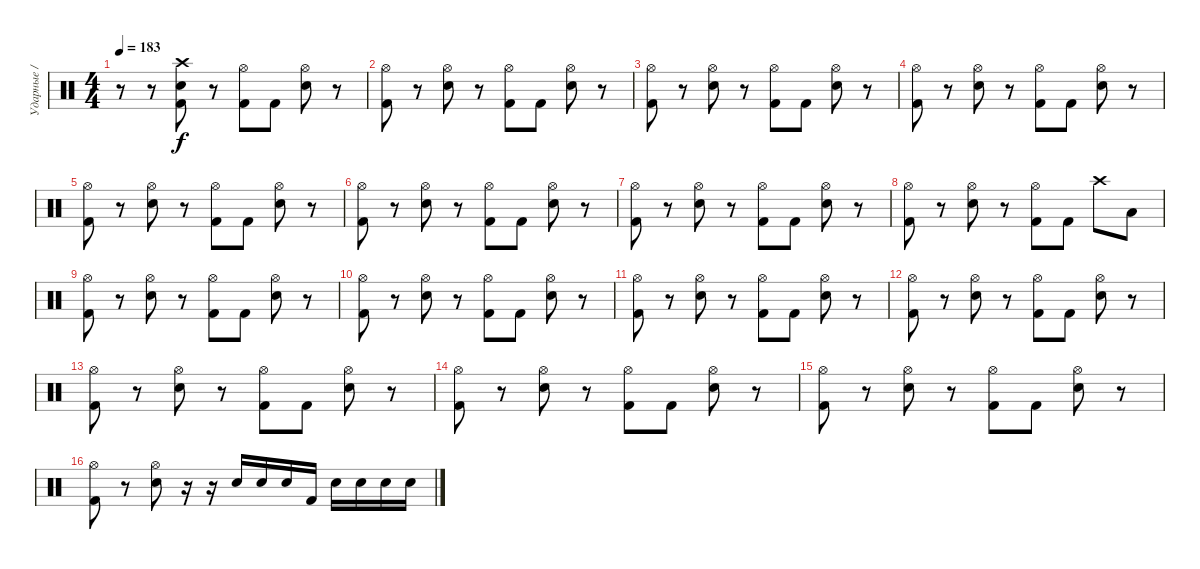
\track ("Ударные / Drums" "Ударные / ") {instrument percussion}
\staff {score}
\articulation defaults
\ts (4 4)
\tempo 183
\clef neutral
\ks c
r.8{dy f} r.8 ("Crash high (hit)" "Snare (hit) 2" "Kick (hit) 2").8 r.8 ("Hi-Hat (open)" "Kick (hit) 2").8 "Kick (hit) 2".8 ("Hi-Hat (open)" "Snare (hit) 2").8 r.8 |
("Hi-Hat (open)" "Kick (hit) 2").8 r.8 ("Hi-Hat (open)" "Snare (hit) 2").8 r.8 ("Hi-Hat (open)" "Kick (hit) 2").8 "Kick (hit) 2".8 ("Hi-Hat (open)" "Snare (hit) 2").8 r.8 |
("Hi-Hat (open)" "Kick (hit) 2").8 r.8 ("Hi-Hat (open)" "Snare (hit) 2").8 r.8 ("Hi-Hat (open)" "Kick (hit) 2").8 "Kick (hit) 2".8 ("Hi-Hat (open)" "Snare (hit) 2").8 r.8 |
("Hi-Hat (open)" "Kick (hit) 2").8 r.8 ("Hi-Hat (open)" "Snare (hit) 2").8 r.8 ("Hi-Hat (open)" "Kick (hit) 2").8 "Kick (hit) 2".8 ("Hi-Hat (open)" "Snare (hit) 2").8 r.8 |
("Hi-Hat (open)" "Kick (hit) 2").8 r.8 ("Hi-Hat (open)" "Snare (hit) 2").8 r.8 ("Hi-Hat (open)" "Kick (hit) 2").8 "Kick (hit) 2".8 ("Hi-Hat (open)" "Snare (hit) 2").8 r.8 |
("Hi-Hat (open)" "Kick (hit) 2").8 r.8 ("Hi-Hat (open)" "Snare (hit) 2").8 r.8 ("Hi-Hat (open)" "Kick (hit) 2").8 "Kick (hit) 2".8 ("Hi-Hat (open)" "Snare (hit) 2").8 r.8 |
("Hi-Hat (open)" "Kick (hit) 2").8 r.8 ("Hi-Hat (open)" "Snare (hit) 2").8 r.8 ("Hi-Hat (open)" "Kick (hit) 2").8 "Kick (hit) 2".8 ("Hi-Hat (open)" "Snare (hit) 2").8 r.8 |
("Hi-Hat (open)" "Kick (hit) 2").8 r.8 ("Hi-Hat (open)" "Snare (hit) 2").8 r.8 ("Hi-Hat (open)" "Kick (hit) 2").8 "Kick (hit) 2".8 "Crash high (hit)".8 "Low Tom (hit)".8 |
("Hi-Hat (open)" "Kick (hit) 2").8 r.8 ("Hi-Hat (open)" "Snare (hit) 2").8 r.8 ("Hi-Hat (open)" "Kick (hit) 2").8 "Kick (hit) 2".8 ("Hi-Hat (open)" "Snare (hit) 2").8 r.8 |
("Hi-Hat (open)" "Kick (hit) 2").8 r.8 ("Hi-Hat (open)" "Snare (hit) 2").8 r.8 ("Hi-Hat (open)" "Kick (hit) 2").8 "Kick (hit) 2".8 ("Hi-Hat (open)" "Snare (hit) 2").8 r.8 |
("Hi-Hat (open)" "Kick (hit) 2").8 r.8 ("Hi-Hat (open)" "Snare (hit) 2").8 r.8 ("Hi-Hat (open)" "Kick (hit) 2").8 "Kick (hit) 2".8 ("Hi-Hat (open)" "Snare (hit) 2").8 r.8 |
("Hi-Hat (open)" "Kick (hit) 2").8 r.8 ("Hi-Hat (open)" "Snare (hit) 2").8 r.8 ("Hi-Hat (open)" "Kick (hit) 2").8 "Kick (hit) 2".8 ("Hi-Hat (open)" "Snare (hit) 2").8 r.8 |
("Hi-Hat (open)" "Kick (hit) 2").8 r.8 ("Hi-Hat (open)" "Snare (hit) 2").8 r.8 ("Hi-Hat (open)" "Kick (hit) 2").8 "Kick (hit) 2".8 ("Hi-Hat (open)" "Snare (hit) 2").8 r.8 |
("Hi-Hat (open)" "Kick (hit) 2").8 r.8 ("Hi-Hat (open)" "Snare (hit) 2").8 r.8 ("Hi-Hat (open)" "Kick (hit) 2").8 "Kick (hit) 2".8 ("Hi-Hat (open)" "Snare (hit) 2").8 r.8 |
("Hi-Hat (open)" "Kick (hit) 2").8 r.8 ("Hi-Hat (open)" "Snare (hit) 2").8 r.8 ("Hi-Hat (open)" "Kick (hit) 2").8 "Kick (hit) 2".8 ("Hi-Hat (open)" "Snare (hit) 2").8 r.8 |
("Hi-Hat (open)" "Kick (hit) 2").8 r.8 ("Hi-Hat (open)" "Snare (hit) 2").8 r.16 r.16 "Snare (hit) 2".16 "Snare (hit) 2".16 "Snare (hit) 2".16 "Kick (hit) 2".16 "Snare (hit) 2".16 "Snare (hit) 2".16 "Snare (hit) 2".16 "Snare (hit) 2".16
